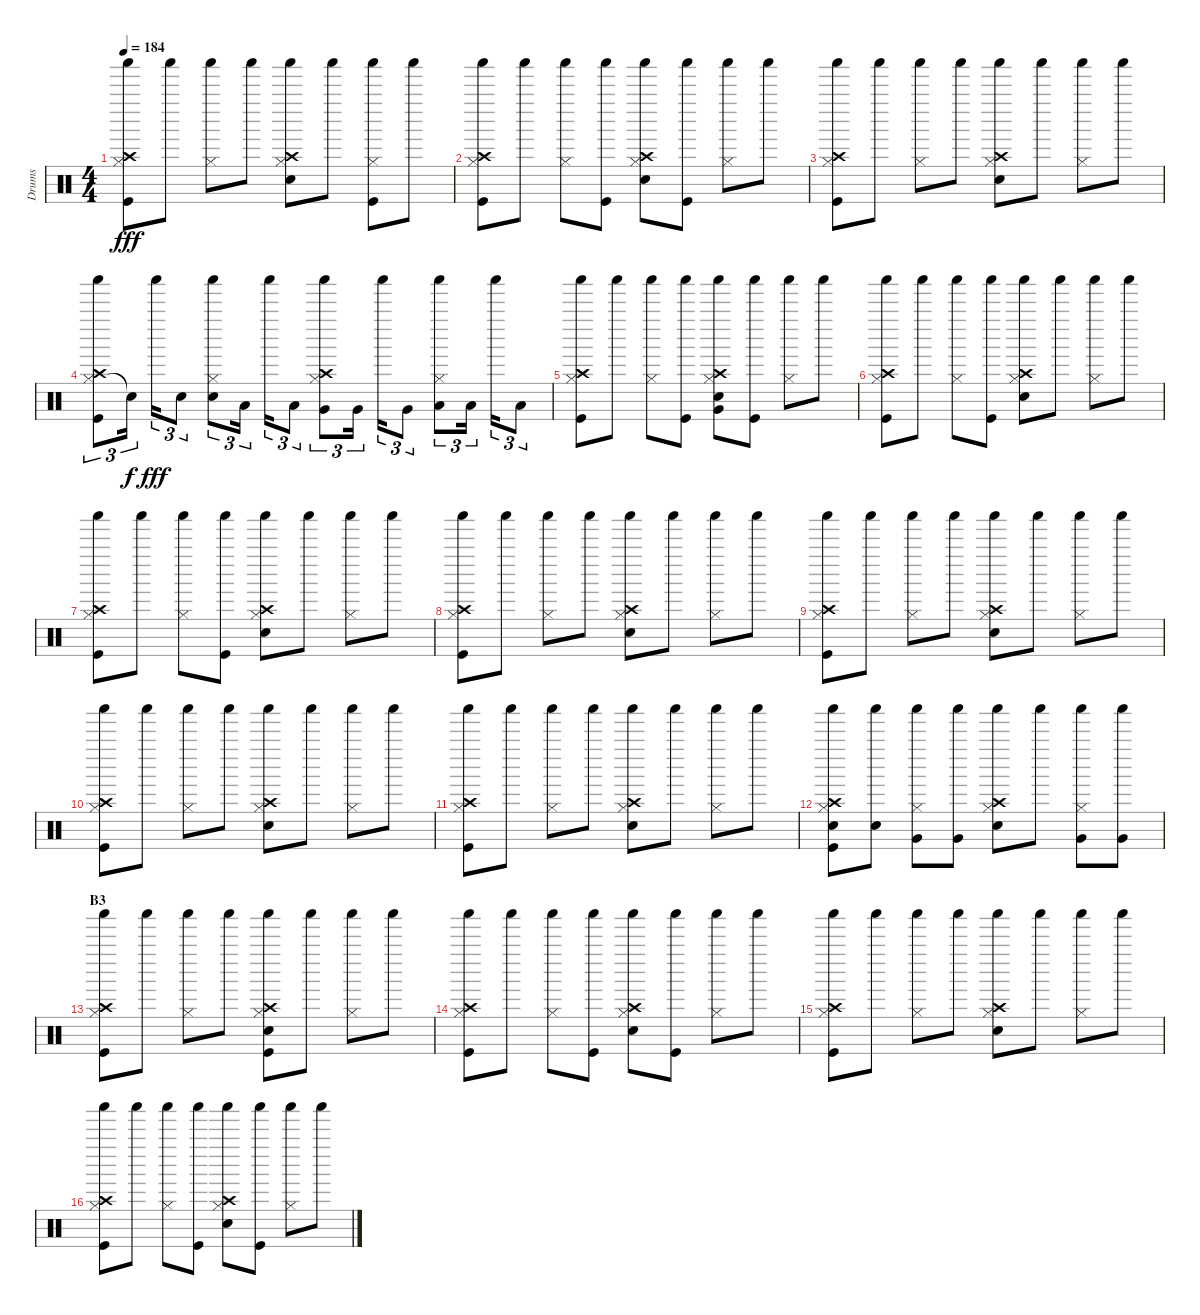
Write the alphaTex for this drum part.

\track ("Drums" "Drums") {instrument percussion}
\staff {score}
\articulation defaults
\ts (4 4)
\tempo 184
\clef neutral
\ks c
("Hi-Hat (closed)" "Shaker (hit)" "Crash high (hit)" "Kick (hit)").8{dy fff} "Shaker (hit)".8 ("Hi-Hat (closed)" "Shaker (hit)").8 "Shaker (hit)".8 ("Hi-Hat (closed)" "Shaker (hit)" "Crash high (hit)" "Snare (hit) 2").8 "Shaker (hit)".8 ("Hi-Hat (closed)" "Shaker (hit)" "Kick (hit)").8 "Shaker (hit)".8 |
("Hi-Hat (closed)" "Shaker (hit)" "Crash high (hit)" "Kick (hit)").8 "Shaker (hit)".8 ("Hi-Hat (closed)" "Shaker (hit)").8 ("Shaker (hit)" "Kick (hit)").8 ("Hi-Hat (closed)" "Shaker (hit)" "Crash high (hit)" "Snare (hit) 2").8 ("Shaker (hit)" "Kick (hit)").8 ("Hi-Hat (closed)" "Shaker (hit)").8 "Shaker (hit)".8 |
("Hi-Hat (closed)" "Shaker (hit)" "Crash high (hit)" "Kick (hit)").8 "Shaker (hit)".8 ("Hi-Hat (closed)" "Shaker (hit)").8 "Shaker (hit)".8 ("Hi-Hat (closed)" "Shaker (hit)" "Crash high (hit)" "Snare (hit) 2").8 "Shaker (hit)".8 ("Hi-Hat (closed)" "Shaker (hit)").8 "Shaker (hit)".8 |
("Hi-Hat (closed)" "Shaker (hit)" "Crash high (hit)" "Kick (hit)").8{tu (3 2)} "Snare (hit)"{t}.16{tu (3 2) dy f} "Shaker (hit)".16{tu (3 2) dy fff} "Snare (hit) 2".8{tu (3 2)} ("Hi-Hat (closed)" "Shaker (hit)" "Snare (hit) 2").8{tu (3 2)} "Low Tom (hit)".16{tu (3 2)} "Shaker (hit)".16{tu (3 2)} "Low Tom (hit)".8{tu (3 2)} ("Hi-Hat (closed)" "Shaker (hit)" "Crash high (hit)" "Very Low Tom (hit)").8{tu (3 2)} "Very Low Tom (hit)".16{tu (3 2)} "Shaker (hit)".16{tu (3 2)} "Very Low Tom (hit)".8{tu (3 2)} ("Hi-Hat (closed)" "Shaker (hit)" "Low Floor Tom (hit)").8{tu (3 2)} "Low Floor Tom (hit)".16{tu (3 2)} "Shaker (hit)".16{tu (3 2)} "Low Floor Tom (hit)".8{tu (3 2)} |
("Hi-Hat (closed)" "Shaker (hit)" "Crash high (hit)" "Kick (hit)").8 "Shaker (hit)".8 ("Hi-Hat (closed)" "Shaker (hit)").8 ("Shaker (hit)" "Kick (hit)").8 ("Hi-Hat (closed)" "Shaker (hit)" "Crash high (hit)" "Very Low Tom (hit)" "Snare (hit) 2").8 ("Shaker (hit)" "Kick (hit)").8 ("Hi-Hat (closed)" "Shaker (hit)").8 "Shaker (hit)".8 |
("Hi-Hat (closed)" "Shaker (hit)" "Crash high (hit)" "Kick (hit)").8 "Shaker (hit)".8 ("Hi-Hat (closed)" "Shaker (hit)").8 ("Shaker (hit)" "Kick (hit)").8 ("Hi-Hat (closed)" "Shaker (hit)" "Crash high (hit)" "Snare (hit) 2").8 "Shaker (hit)".8 ("Hi-Hat (closed)" "Shaker (hit)").8 "Shaker (hit)".8 |
("Hi-Hat (closed)" "Shaker (hit)" "Crash high (hit)" "Kick (hit)").8 "Shaker (hit)".8 ("Hi-Hat (closed)" "Shaker (hit)").8 ("Shaker (hit)" "Kick (hit)").8 ("Hi-Hat (closed)" "Shaker (hit)" "Crash high (hit)" "Snare (hit) 2").8 "Shaker (hit)".8 ("Hi-Hat (closed)" "Shaker (hit)").8 "Shaker (hit)".8 |
("Hi-Hat (closed)" "Shaker (hit)" "Crash high (hit)" "Kick (hit)").8 "Shaker (hit)".8 ("Hi-Hat (closed)" "Shaker (hit)").8 "Shaker (hit)".8 ("Hi-Hat (closed)" "Shaker (hit)" "Crash high (hit)" "Snare (hit) 2").8 "Shaker (hit)".8 ("Hi-Hat (closed)" "Shaker (hit)").8 "Shaker (hit)".8 |
("Hi-Hat (closed)" "Shaker (hit)" "Crash high (hit)" "Kick (hit)").8 "Shaker (hit)".8 ("Hi-Hat (closed)" "Shaker (hit)").8 "Shaker (hit)".8 ("Hi-Hat (closed)" "Shaker (hit)" "Crash high (hit)" "Snare (hit) 2").8 "Shaker (hit)".8 ("Hi-Hat (closed)" "Shaker (hit)").8 "Shaker (hit)".8 |
("Hi-Hat (closed)" "Shaker (hit)" "Crash high (hit)" "Kick (hit)").8 "Shaker (hit)".8 ("Hi-Hat (closed)" "Shaker (hit)").8 "Shaker (hit)".8 ("Hi-Hat (closed)" "Shaker (hit)" "Crash high (hit)" "Snare (hit) 2").8 "Shaker (hit)".8 ("Hi-Hat (closed)" "Shaker (hit)").8 "Shaker (hit)".8 |
("Hi-Hat (closed)" "Shaker (hit)" "Crash high (hit)" "Kick (hit)").8 "Shaker (hit)".8 ("Hi-Hat (closed)" "Shaker (hit)").8 "Shaker (hit)".8 ("Hi-Hat (closed)" "Shaker (hit)" "Crash high (hit)" "Snare (hit) 2").8 "Shaker (hit)".8 ("Hi-Hat (closed)" "Shaker (hit)").8 "Shaker (hit)".8 |
("Hi-Hat (closed)" "Shaker (hit)" "Crash high (hit)" "Snare (hit) 2" "Kick (hit)").8 ("Shaker (hit)" "Snare (hit) 2").8 ("Hi-Hat (closed)" "Shaker (hit)" "Very Low Tom (hit)").8 ("Shaker (hit)" "Very Low Tom (hit)").8 ("Hi-Hat (closed)" "Shaker (hit)" "Crash high (hit)" "Snare (hit) 2").8 "Shaker (hit)".8 ("Hi-Hat (closed)" "Shaker (hit)" "Very Low Tom (hit)").8 ("Shaker (hit)" "Very Low Tom (hit)").8 |
\section ("" "B3")
("Hi-Hat (closed)" "Shaker (hit)" "Crash high (hit)" "Kick (hit)").8 "Shaker (hit)".8 ("Hi-Hat (closed)" "Shaker (hit)").8 "Shaker (hit)".8 ("Hi-Hat (closed)" "Shaker (hit)" "Crash high (hit)" "Snare (hit) 2" "Kick (hit)").8 "Shaker (hit)".8 ("Hi-Hat (closed)" "Shaker (hit)").8 "Shaker (hit)".8 |
("Hi-Hat (closed)" "Shaker (hit)" "Crash high (hit)" "Kick (hit)").8 "Shaker (hit)".8 ("Hi-Hat (closed)" "Shaker (hit)").8 ("Shaker (hit)" "Kick (hit)").8 ("Hi-Hat (closed)" "Shaker (hit)" "Crash high (hit)" "Snare (hit) 2").8 ("Shaker (hit)" "Kick (hit)").8 ("Hi-Hat (closed)" "Shaker (hit)").8 "Shaker (hit)".8 |
("Hi-Hat (closed)" "Shaker (hit)" "Crash high (hit)" "Kick (hit)").8 "Shaker (hit)".8 ("Hi-Hat (closed)" "Shaker (hit)").8 "Shaker (hit)".8 ("Hi-Hat (closed)" "Shaker (hit)" "Crash high (hit)" "Snare (hit) 2").8 "Shaker (hit)".8 ("Hi-Hat (closed)" "Shaker (hit)").8 "Shaker (hit)".8 |
("Hi-Hat (closed)" "Shaker (hit)" "Crash high (hit)" "Kick (hit)").8 "Shaker (hit)".8 ("Hi-Hat (closed)" "Shaker (hit)").8 ("Shaker (hit)" "Kick (hit)").8 ("Hi-Hat (closed)" "Shaker (hit)" "Crash high (hit)" "Snare (hit) 2").8 ("Shaker (hit)" "Kick (hit)").8 ("Hi-Hat (closed)" "Shaker (hit)").8 "Shaker (hit)".8
